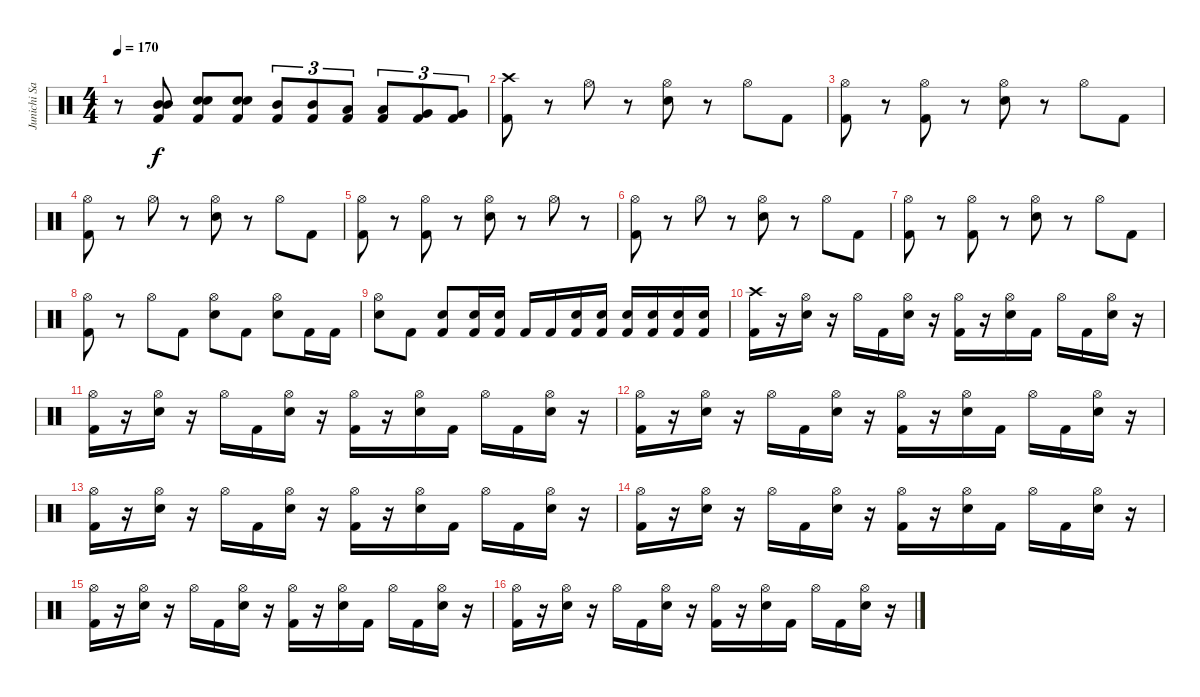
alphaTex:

\track ("Junichi Sato" "Junichi Sa") {instrument percussion}
\staff {score}
\articulation defaults
\ts (4 4)
\tempo 170
\clef neutral
\ks c
r.8{dy f} ("Mid Tom (hit)" "Mid Tom (hit)" "Kick (hit) 2").8 ("Electric Snare (hit)" "Electric Snare (hit)" "Kick (hit) 2").8 ("Electric Snare (hit)" "Electric Snare (hit)" "Kick (hit) 2").8 ("Mid Tom (hit)" "Kick (hit) 2").8{tu (3 2)} ("Mid Tom (hit)" "Kick (hit) 2").8{tu (3 2)} ("Low Tom (hit)" "Kick (hit) 2").8{tu (3 2)} ("Low Tom (hit)" "Kick (hit) 2").8{tu (3 2)} ("Very Low Tom (hit)" "Kick (hit) 2").8{tu (3 2)} ("Very Low Tom (hit)" "Kick (hit) 2").8{tu (3 2)} |
("Crash high (hit)" "Kick (hit) 2").8 r.8 "Hi-Hat (open)".8 r.8 ("Hi-Hat (open)" "Electric Snare (hit)").8 r.8 "Hi-Hat (open)".8 "Kick (hit) 2".8 |
("Hi-Hat (open)" "Kick (hit) 2").8 r.8 ("Hi-Hat (open)" "Kick (hit) 2").8 r.8 ("Hi-Hat (open)" "Electric Snare (hit)").8 r.8 "Hi-Hat (open)".8 "Kick (hit) 2".8 |
("Hi-Hat (open)" "Kick (hit) 2").8 r.8 "Hi-Hat (open)".8 r.8 ("Hi-Hat (open)" "Electric Snare (hit)").8 r.8 "Hi-Hat (open)".8 "Kick (hit) 2".8 |
("Hi-Hat (open)" "Kick (hit) 2").8 r.8 ("Hi-Hat (open)" "Kick (hit) 2").8 r.8 ("Hi-Hat (open)" "Electric Snare (hit)").8 r.8 "Hi-Hat (open)".8 r.8 |
("Hi-Hat (open)" "Kick (hit) 2").8 r.8 "Hi-Hat (open)".8 r.8 ("Hi-Hat (open)" "Electric Snare (hit)").8 r.8 "Hi-Hat (open)".8 "Kick (hit) 2".8 |
("Hi-Hat (open)" "Kick (hit) 2").8 r.8 ("Hi-Hat (open)" "Kick (hit) 2").8 r.8 ("Hi-Hat (open)" "Electric Snare (hit)").8 r.8 "Hi-Hat (open)".8 "Kick (hit) 2".8 |
("Hi-Hat (open)" "Kick (hit) 2").8 r.8 "Hi-Hat (open)".8 "Kick (hit) 2".8 ("Hi-Hat (open)" "Electric Snare (hit)").8 "Kick (hit) 2".8 ("Hi-Hat (open)" "Electric Snare (hit)").8 "Kick (hit) 2".16 "Kick (hit) 2".16 |
("Hi-Hat (open)" "Electric Snare (hit)").8 "Kick (hit) 2".8 ("Electric Snare (hit)" "Kick (hit) 2").8 ("Electric Snare (hit)" "Kick (hit) 2").16 ("Electric Snare (hit)" "Kick (hit) 2").16 "Kick (hit) 2".16 "Kick (hit) 2".16 ("Electric Snare (hit)" "Kick (hit) 2").16 ("Electric Snare (hit)" "Kick (hit) 2").16 ("Electric Snare (hit)" "Kick (hit) 2").16 ("Electric Snare (hit)" "Kick (hit) 2").16 ("Electric Snare (hit)" "Kick (hit) 2").16 ("Electric Snare (hit)" "Kick (hit) 2").16 |
("Crash high (hit)" "Kick (hit) 2").16 r.16 ("Hi-Hat (open)" "Electric Snare (hit)").16 r.16 "Hi-Hat (open)".16 "Kick (hit) 2".16 ("Hi-Hat (open)" "Electric Snare (hit)").16 r.16 ("Hi-Hat (open)" "Kick (hit) 2").16 r.16 ("Hi-Hat (open)" "Electric Snare (hit)").16 "Kick (hit) 2".16 "Hi-Hat (open)".16 "Kick (hit) 2".16 ("Hi-Hat (open)" "Electric Snare (hit)").16 r.16 |
("Hi-Hat (open)" "Kick (hit) 2").16 r.16 ("Hi-Hat (open)" "Electric Snare (hit)").16 r.16 "Hi-Hat (open)".16 "Kick (hit) 2".16 ("Hi-Hat (open)" "Electric Snare (hit)").16 r.16 ("Hi-Hat (open)" "Kick (hit) 2").16 r.16 ("Hi-Hat (open)" "Electric Snare (hit)").16 "Kick (hit) 2".16 "Hi-Hat (open)".16 "Kick (hit) 2".16 ("Hi-Hat (open)" "Electric Snare (hit)").16 r.16 |
("Hi-Hat (open)" "Kick (hit) 2").16 r.16 ("Hi-Hat (open)" "Electric Snare (hit)").16 r.16 "Hi-Hat (open)".16 "Kick (hit) 2".16 ("Hi-Hat (open)" "Electric Snare (hit)").16 r.16 ("Hi-Hat (open)" "Kick (hit) 2").16 r.16 ("Hi-Hat (open)" "Electric Snare (hit)").16 "Kick (hit) 2".16 "Hi-Hat (open)".16 "Kick (hit) 2".16 ("Hi-Hat (open)" "Electric Snare (hit)").16 r.16 |
("Hi-Hat (open)" "Kick (hit) 2").16 r.16 ("Hi-Hat (open)" "Electric Snare (hit)").16 r.16 "Hi-Hat (open)".16 "Kick (hit) 2".16 ("Hi-Hat (open)" "Electric Snare (hit)").16 r.16 ("Hi-Hat (open)" "Kick (hit) 2").16 r.16 ("Hi-Hat (open)" "Electric Snare (hit)").16 "Kick (hit) 2".16 "Hi-Hat (open)".16 "Kick (hit) 2".16 ("Hi-Hat (open)" "Electric Snare (hit)").16 r.16 |
("Hi-Hat (open)" "Kick (hit) 2").16 r.16 ("Hi-Hat (open)" "Electric Snare (hit)").16 r.16 "Hi-Hat (open)".16 "Kick (hit) 2".16 ("Hi-Hat (open)" "Electric Snare (hit)").16 r.16 ("Hi-Hat (open)" "Kick (hit) 2").16 r.16 ("Hi-Hat (open)" "Electric Snare (hit)").16 "Kick (hit) 2".16 "Hi-Hat (open)".16 "Kick (hit) 2".16 ("Hi-Hat (open)" "Electric Snare (hit)").16 r.16 |
("Hi-Hat (open)" "Kick (hit) 2").16 r.16 ("Hi-Hat (open)" "Electric Snare (hit)").16 r.16 "Hi-Hat (open)".16 "Kick (hit) 2".16 ("Hi-Hat (open)" "Electric Snare (hit)").16 r.16 ("Hi-Hat (open)" "Kick (hit) 2").16 r.16 ("Hi-Hat (open)" "Electric Snare (hit)").16 "Kick (hit) 2".16 "Hi-Hat (open)".16 "Kick (hit) 2".16 ("Hi-Hat (open)" "Electric Snare (hit)").16 r.16 |
("Hi-Hat (open)" "Kick (hit) 2").16 r.16 ("Hi-Hat (open)" "Electric Snare (hit)").16 r.16 "Hi-Hat (open)".16 "Kick (hit) 2".16 ("Hi-Hat (open)" "Electric Snare (hit)").16 r.16 ("Hi-Hat (open)" "Kick (hit) 2").16 r.16 ("Hi-Hat (open)" "Electric Snare (hit)").16 "Kick (hit) 2".16 "Hi-Hat (open)".16 "Kick (hit) 2".16 ("Hi-Hat (open)" "Electric Snare (hit)").16 r.16
